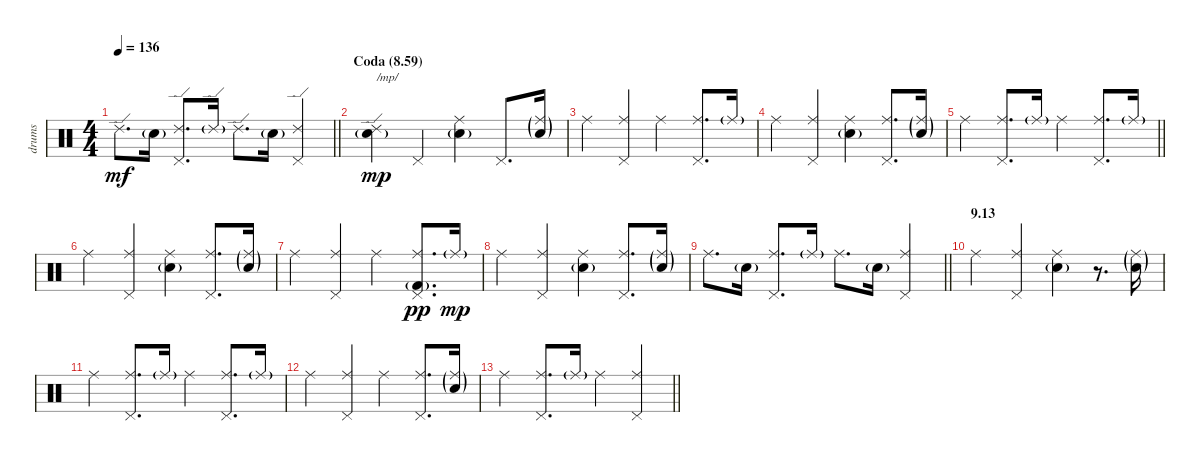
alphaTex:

\track ("drums" "drums") {instrument percussion}
\staff {score}
\articulation defaults
\ts (4 4)
\tempo 136
\clef neutral
\barLineRight lightlight
\ks c "Ride (edge) 2".8{d dy mf} "Electric Snare (hit)"{g}.16
("Ride (edge) 2" "Pedal Hi-Hat (hit)").8{d} "Ride (edge) 2"{g}.16 "Ride (edge) 2".8{d} "Electric Snare (hit)"{g}.16 ("Ride (edge) 2" "Pedal Hi-Hat (hit)").4 |
\section ("" "Coda (8.59)")
("Ride (edge) 2" "Electric Snare (hit)"{g}).4{txt "/mp/" dy mp} "Pedal Hi-Hat (hit)".4 ("Ride (middle)" "Electric Snare (hit)"{g}).4 "Pedal Hi-Hat (hit)".8{d} ("Ride (middle)"{g} "Electric Snare (hit)"{g}).16 |
"Ride (middle)".4 ("Ride (middle)" "Pedal Hi-Hat (hit)").4 "Ride (middle)".4 ("Ride (middle)" "Pedal Hi-Hat (hit)").8{d} "Ride (middle)"{g}.16 |
"Ride (middle)".4 ("Ride (middle)" "Pedal Hi-Hat (hit)").4 ("Ride (middle)" "Electric Snare (hit)"{g}).4 ("Ride (middle)" "Pedal Hi-Hat (hit)").8{d} ("Ride (middle)"{g} "Electric Snare (hit)"{g}).16 |
\barLineRight lightlight "Ride (middle)".4
("Ride (middle)" "Pedal Hi-Hat (hit)").8{d} "Ride (middle)"{g}.16 "Ride (middle)".4 ("Ride (middle)" "Pedal Hi-Hat (hit)").8{d} "Ride (middle)"{g}.16 |
"Ride (middle)".4 ("Ride (middle)" "Pedal Hi-Hat (hit)").4 ("Ride (middle)" "Electric Snare (hit)"{g}).4 ("Ride (middle)" "Pedal Hi-Hat (hit)").8{d} ("Ride (middle)"{g} "Electric Snare (hit)"{g}).16 |
"Ride (middle)".4 ("Ride (middle)" "Pedal Hi-Hat (hit)").4 "Ride (middle)".4 ("Ride (middle)" "Pedal Hi-Hat (hit)" "Kick (hit) 2"{g}).8{d dy pp} "Ride (middle)"{g}.16{dy mp} |
"Ride (middle)".4 ("Ride (middle)" "Pedal Hi-Hat (hit)").4 ("Ride (middle)" "Electric Snare (hit)"{g}).4 ("Ride (middle)" "Pedal Hi-Hat (hit)").8{d} ("Ride (middle)"{g} "Electric Snare (hit)"{g}).16 |
\barLineRight lightlight "Ride (middle)".8{d} "Electric Snare (hit)"{g}.16
("Ride (middle)" "Pedal Hi-Hat (hit)").8{d} "Ride (middle)"{g}.16 "Ride (middle)".8{d} "Electric Snare (hit)"{g}.16 ("Ride (middle)" "Pedal Hi-Hat (hit)").4 |
\section ("" "9.13")
"Ride (middle)".4 ("Ride (middle)" "Pedal Hi-Hat (hit)").4 ("Ride (middle)" "Electric Snare (hit)"{g}).4 r.8{d} ("Ride (middle)"{g} "Electric Snare (hit)"{g}).16 |
"Ride (middle)".4 ("Ride (middle)" "Pedal Hi-Hat (hit)").8{d} "Ride (middle)"{g}.16 "Ride (middle)".4 ("Ride (middle)" "Pedal Hi-Hat (hit)").8{d} "Ride (middle)"{g}.16 |
"Ride (middle)".4 ("Ride (middle)" "Pedal Hi-Hat (hit)").4 "Ride (middle)".4 ("Ride (middle)" "Pedal Hi-Hat (hit)").8{d} ("Ride (middle)"{g} "Electric Snare (hit)"{g}).16 |
\barLineRight lightlight "Ride (middle)".4
("Ride (middle)" "Pedal Hi-Hat (hit)").8{d} "Ride (middle)"{g}.16 "Ride (middle)".4 ("Ride (middle)" "Pedal Hi-Hat (hit)").4
